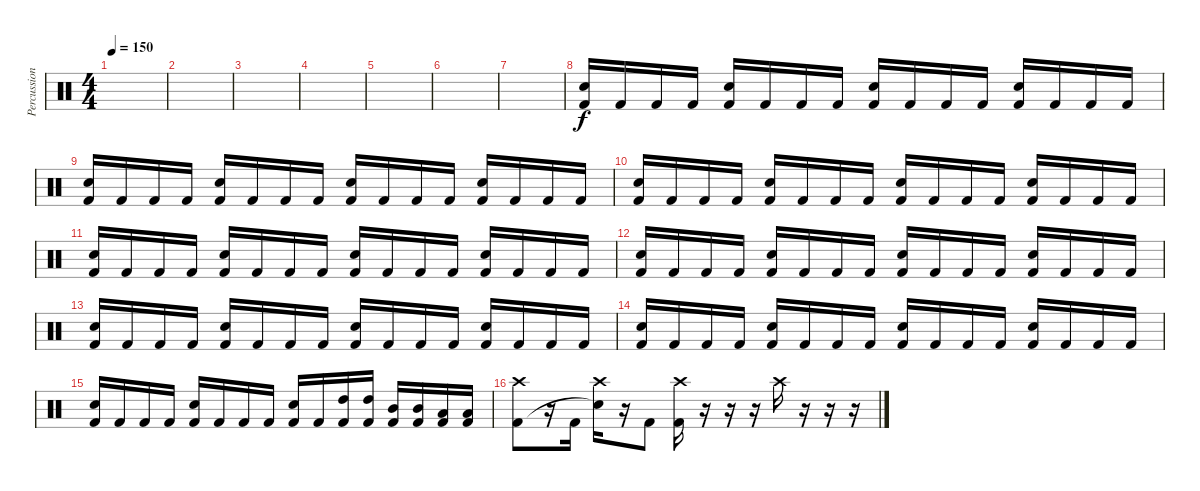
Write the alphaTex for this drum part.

\track ("Percussion" "Percussion") {instrument percussion}
\staff {score}
\articulation defaults
\ts (4 4)
\tempo 150
\clef neutral
\ks c
|
|
|
|
|
|
|
("Snare (hit) 2" "Kick (hit) 2").16 "Kick (hit) 2".16 "Kick (hit) 2".16 "Kick (hit) 2".16 ("Snare (hit) 2" "Kick (hit) 2").16 "Kick (hit) 2".16 "Kick (hit) 2".16 "Kick (hit) 2".16 ("Snare (hit) 2" "Kick (hit) 2").16 "Kick (hit) 2".16 "Kick (hit) 2".16 "Kick (hit) 2".16 ("Snare (hit) 2" "Kick (hit) 2").16 "Kick (hit) 2".16 "Kick (hit) 2".16 "Kick (hit) 2".16 |
("Snare (hit) 2" "Kick (hit) 2").16 "Kick (hit) 2".16 "Kick (hit) 2".16 "Kick (hit) 2".16 ("Snare (hit) 2" "Kick (hit) 2").16 "Kick (hit) 2".16 "Kick (hit) 2".16 "Kick (hit) 2".16 ("Snare (hit) 2" "Kick (hit) 2").16 "Kick (hit) 2".16 "Kick (hit) 2".16 "Kick (hit) 2".16 ("Snare (hit) 2" "Kick (hit) 2").16 "Kick (hit) 2".16 "Kick (hit) 2".16 "Kick (hit) 2".16 |
("Snare (hit) 2" "Kick (hit) 2").16 "Kick (hit) 2".16 "Kick (hit) 2".16 "Kick (hit) 2".16 ("Snare (hit) 2" "Kick (hit) 2").16 "Kick (hit) 2".16 "Kick (hit) 2".16 "Kick (hit) 2".16 ("Snare (hit) 2" "Kick (hit) 2").16 "Kick (hit) 2".16 "Kick (hit) 2".16 "Kick (hit) 2".16 ("Snare (hit) 2" "Kick (hit) 2").16 "Kick (hit) 2".16 "Kick (hit) 2".16 "Kick (hit) 2".16 |
("Snare (hit) 2" "Kick (hit) 2").16 "Kick (hit) 2".16 "Kick (hit) 2".16 "Kick (hit) 2".16 ("Snare (hit) 2" "Kick (hit) 2").16 "Kick (hit) 2".16 "Kick (hit) 2".16 "Kick (hit) 2".16 ("Snare (hit) 2" "Kick (hit) 2").16 "Kick (hit) 2".16 "Kick (hit) 2".16 "Kick (hit) 2".16 ("Snare (hit) 2" "Kick (hit) 2").16 "Kick (hit) 2".16 "Kick (hit) 2".16 "Kick (hit) 2".16 |
("Snare (hit) 2" "Kick (hit) 2").16 "Kick (hit) 2".16 "Kick (hit) 2".16 "Kick (hit) 2".16 ("Snare (hit) 2" "Kick (hit) 2").16 "Kick (hit) 2".16 "Kick (hit) 2".16 "Kick (hit) 2".16 ("Snare (hit) 2" "Kick (hit) 2").16 "Kick (hit) 2".16 "Kick (hit) 2".16 "Kick (hit) 2".16 ("Snare (hit) 2" "Kick (hit) 2").16 "Kick (hit) 2".16 "Kick (hit) 2".16 "Kick (hit) 2".16 |
("Snare (hit) 2" "Kick (hit) 2").16 "Kick (hit) 2".16 "Kick (hit) 2".16 "Kick (hit) 2".16 ("Snare (hit) 2" "Kick (hit) 2").16 "Kick (hit) 2".16 "Kick (hit) 2".16 "Kick (hit) 2".16 ("Snare (hit) 2" "Kick (hit) 2").16 "Kick (hit) 2".16 "Kick (hit) 2".16 "Kick (hit) 2".16 ("Snare (hit) 2" "Kick (hit) 2").16 "Kick (hit) 2".16 "Kick (hit) 2".16 "Kick (hit) 2".16 |
("Snare (hit) 2" "Kick (hit) 2").16 "Kick (hit) 2".16 "Kick (hit) 2".16 "Kick (hit) 2".16 ("Snare (hit) 2" "Kick (hit) 2").16 "Kick (hit) 2".16 "Kick (hit) 2".16 "Kick (hit) 2".16 ("Snare (hit) 2" "Kick (hit) 2").16 "Kick (hit) 2".16 "Kick (hit) 2".16 "Kick (hit) 2".16 ("Snare (hit) 2" "Kick (hit) 2").16 "Kick (hit) 2".16 "Kick (hit) 2".16 "Kick (hit) 2".16 |
("Snare (hit) 2" "Kick (hit) 2").16 "Kick (hit) 2".16 "Kick (hit) 2".16 "Kick (hit) 2".16 ("Snare (hit) 2" "Kick (hit) 2").16 "Kick (hit) 2".16 "Kick (hit) 2".16 "Kick (hit) 2".16 ("Snare (hit) 2" "Kick (hit) 2").16 "Kick (hit) 2".16 ("High Tom (hit)" "Kick (hit) 2").16 ("High Tom (hit)" "Kick (hit) 2").16 ("Mid Tom (hit)" "Kick (hit) 2").16 ("Mid Tom (hit)" "Kick (hit) 2").16 ("Low Tom (hit)" "Kick (hit) 2").16 ("Low Tom (hit)" "Kick (hit) 2").16 |
("Crash high (hit)" "Kick (hit) 2").8 r.16 "Kick (hit) 2".16 ("Crash high (hit)" "Snare (hit)"{t}).16 r.16 "Kick (hit) 2".8 ("Crash high (hit)" "Kick (hit) 2").16 r.16 r.16 r.16 "Crash high (hit)".16 r.16 r.16 r.16
